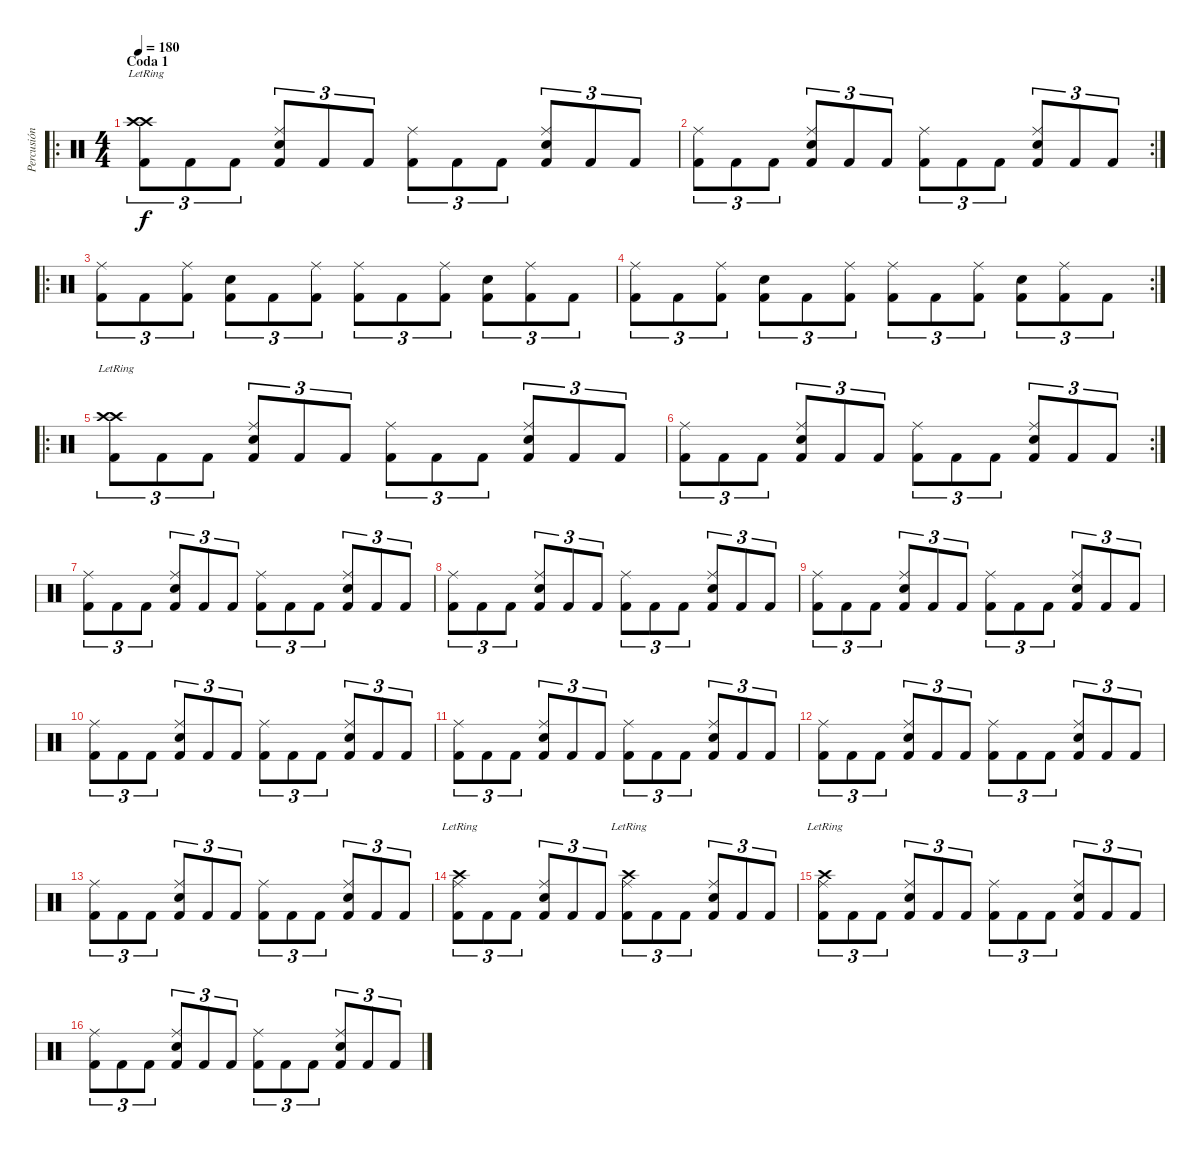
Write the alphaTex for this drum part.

\track ("Percusión" "Percusión") {instrument percussion}
\staff {score}
\articulation defaults
\ro
\ts (4 4)
\section ("" "Coda 1")
\tempo 180
\clef neutral
\ks c
("Crash high (hit)"{lr} "Crash high (hit)"{lr} "Kick (hit) 2").8{tu (3 2) dy f} "Kick (hit) 2".8{tu (3 2)} "Kick (hit) 2".8{tu (3 2)} ("Ride (middle)" "Snare (hit) 2" "Kick (hit) 2").8{tu (3 2)} "Kick (hit) 2".8{tu (3 2)} "Kick (hit) 2".8{tu (3 2)} ("Ride (middle)" "Kick (hit) 2").8{tu (3 2)} "Kick (hit) 2".8{tu (3 2)} "Kick (hit) 2".8{tu (3 2)} ("Ride (middle)" "Snare (hit) 2" "Kick (hit) 2").8{tu (3 2)} "Kick (hit) 2".8{tu (3 2)} "Kick (hit) 2".8{tu (3 2)} |
\rc 2
("Ride (middle)" "Kick (hit) 2").8{tu (3 2)} "Kick (hit) 2".8{tu (3 2)} "Kick (hit) 2".8{tu (3 2)} ("Ride (middle)" "Snare (hit) 2" "Kick (hit) 2").8{tu (3 2)} "Kick (hit) 2".8{tu (3 2)} "Kick (hit) 2".8{tu (3 2)} ("Ride (middle)" "Kick (hit) 2").8{tu (3 2)} "Kick (hit) 2".8{tu (3 2)} "Kick (hit) 2".8{tu (3 2)} ("Ride (middle)" "Snare (hit) 2" "Kick (hit) 2").8{tu (3 2)} "Kick (hit) 2".8{tu (3 2)} "Kick (hit) 2".8{tu (3 2)} |
\ro
("Ride (middle)" "Kick (hit) 2").8{tu (3 2)} "Kick (hit) 2".8{tu (3 2)} ("Ride (middle)" "Kick (hit) 2").8{tu (3 2)} ("Snare (hit) 2" "Kick (hit) 2").8{tu (3 2)} "Kick (hit) 2".8{tu (3 2)} ("Ride (middle)" "Kick (hit) 2").8{tu (3 2)} ("Ride (middle)" "Kick (hit) 2").8{tu (3 2)} "Kick (hit) 2".8{tu (3 2)} ("Ride (middle)" "Kick (hit) 2").8{tu (3 2)} ("Snare (hit) 2" "Kick (hit) 2").8{tu (3 2)} ("Ride (middle)" "Kick (hit) 2").8{tu (3 2)} "Kick (hit) 2".8{tu (3 2)} |
\rc 2
("Ride (middle)" "Kick (hit) 2").8{tu (3 2)} "Kick (hit) 2".8{tu (3 2)} ("Ride (middle)" "Kick (hit) 2").8{tu (3 2)} ("Snare (hit) 2" "Kick (hit) 2").8{tu (3 2)} "Kick (hit) 2".8{tu (3 2)} ("Ride (middle)" "Kick (hit) 2").8{tu (3 2)} ("Ride (middle)" "Kick (hit) 2").8{tu (3 2)} "Kick (hit) 2".8{tu (3 2)} ("Ride (middle)" "Kick (hit) 2").8{tu (3 2)} ("Snare (hit) 2" "Kick (hit) 2").8{tu (3 2)} ("Ride (middle)" "Kick (hit) 2").8{tu (3 2)} "Kick (hit) 2".8{tu (3 2)} |
\ro
("Crash high (hit)"{lr} "Crash high (hit)"{lr} "Kick (hit) 2").8{tu (3 2)} "Kick (hit) 2".8{tu (3 2)} "Kick (hit) 2".8{tu (3 2)} ("Ride (middle)" "Snare (hit) 2" "Kick (hit) 2").8{tu (3 2)} "Kick (hit) 2".8{tu (3 2)} "Kick (hit) 2".8{tu (3 2)} ("Ride (middle)" "Kick (hit) 2").8{tu (3 2)} "Kick (hit) 2".8{tu (3 2)} "Kick (hit) 2".8{tu (3 2)} ("Ride (middle)" "Snare (hit) 2" "Kick (hit) 2").8{tu (3 2)} "Kick (hit) 2".8{tu (3 2)} "Kick (hit) 2".8{tu (3 2)} |
\rc 2
("Ride (middle)" "Kick (hit) 2").8{tu (3 2)} "Kick (hit) 2".8{tu (3 2)} "Kick (hit) 2".8{tu (3 2)} ("Ride (middle)" "Snare (hit) 2" "Kick (hit) 2").8{tu (3 2)} "Kick (hit) 2".8{tu (3 2)} "Kick (hit) 2".8{tu (3 2)} ("Ride (middle)" "Kick (hit) 2").8{tu (3 2)} "Kick (hit) 2".8{tu (3 2)} "Kick (hit) 2".8{tu (3 2)} ("Ride (middle)" "Snare (hit) 2" "Kick (hit) 2").8{tu (3 2)} "Kick (hit) 2".8{tu (3 2)} "Kick (hit) 2".8{tu (3 2)} |
("Ride (middle)" "Kick (hit) 2").8{tu (3 2)} "Kick (hit) 2".8{tu (3 2)} "Kick (hit) 2".8{tu (3 2)} ("Ride (middle)" "Snare (hit) 2" "Kick (hit) 2").8{tu (3 2)} "Kick (hit) 2".8{tu (3 2)} "Kick (hit) 2".8{tu (3 2)} ("Ride (middle)" "Kick (hit) 2").8{tu (3 2)} "Kick (hit) 2".8{tu (3 2)} "Kick (hit) 2".8{tu (3 2)} ("Ride (middle)" "Snare (hit) 2" "Kick (hit) 2").8{tu (3 2)} "Kick (hit) 2".8{tu (3 2)} "Kick (hit) 2".8{tu (3 2)} |
("Ride (middle)" "Kick (hit) 2").8{tu (3 2)} "Kick (hit) 2".8{tu (3 2)} "Kick (hit) 2".8{tu (3 2)} ("Ride (middle)" "Snare (hit) 2" "Kick (hit) 2").8{tu (3 2)} "Kick (hit) 2".8{tu (3 2)} "Kick (hit) 2".8{tu (3 2)} ("Ride (middle)" "Kick (hit) 2").8{tu (3 2)} "Kick (hit) 2".8{tu (3 2)} "Kick (hit) 2".8{tu (3 2)} ("Ride (middle)" "Snare (hit) 2" "Kick (hit) 2").8{tu (3 2)} "Kick (hit) 2".8{tu (3 2)} "Kick (hit) 2".8{tu (3 2)} |
("Ride (middle)" "Kick (hit) 2").8{tu (3 2)} "Kick (hit) 2".8{tu (3 2)} "Kick (hit) 2".8{tu (3 2)} ("Ride (middle)" "Snare (hit) 2" "Kick (hit) 2").8{tu (3 2)} "Kick (hit) 2".8{tu (3 2)} "Kick (hit) 2".8{tu (3 2)} ("Ride (middle)" "Kick (hit) 2").8{tu (3 2)} "Kick (hit) 2".8{tu (3 2)} "Kick (hit) 2".8{tu (3 2)} ("Ride (middle)" "Snare (hit) 2" "Kick (hit) 2").8{tu (3 2)} "Kick (hit) 2".8{tu (3 2)} "Kick (hit) 2".8{tu (3 2)} |
("Ride (middle)" "Kick (hit) 2").8{tu (3 2)} "Kick (hit) 2".8{tu (3 2)} "Kick (hit) 2".8{tu (3 2)} ("Ride (middle)" "Snare (hit) 2" "Kick (hit) 2").8{tu (3 2)} "Kick (hit) 2".8{tu (3 2)} "Kick (hit) 2".8{tu (3 2)} ("Ride (middle)" "Kick (hit) 2").8{tu (3 2)} "Kick (hit) 2".8{tu (3 2)} "Kick (hit) 2".8{tu (3 2)} ("Ride (middle)" "Snare (hit) 2" "Kick (hit) 2").8{tu (3 2)} "Kick (hit) 2".8{tu (3 2)} "Kick (hit) 2".8{tu (3 2)} |
("Ride (middle)" "Kick (hit) 2").8{tu (3 2)} "Kick (hit) 2".8{tu (3 2)} "Kick (hit) 2".8{tu (3 2)} ("Ride (middle)" "Snare (hit) 2" "Kick (hit) 2").8{tu (3 2)} "Kick (hit) 2".8{tu (3 2)} "Kick (hit) 2".8{tu (3 2)} ("Ride (middle)" "Kick (hit) 2").8{tu (3 2)} "Kick (hit) 2".8{tu (3 2)} "Kick (hit) 2".8{tu (3 2)} ("Ride (middle)" "Snare (hit) 2" "Kick (hit) 2").8{tu (3 2)} "Kick (hit) 2".8{tu (3 2)} "Kick (hit) 2".8{tu (3 2)} |
("Ride (middle)" "Kick (hit) 2").8{tu (3 2)} "Kick (hit) 2".8{tu (3 2)} "Kick (hit) 2".8{tu (3 2)} ("Ride (middle)" "Snare (hit) 2" "Kick (hit) 2").8{tu (3 2)} "Kick (hit) 2".8{tu (3 2)} "Kick (hit) 2".8{tu (3 2)} ("Ride (middle)" "Kick (hit) 2").8{tu (3 2)} "Kick (hit) 2".8{tu (3 2)} "Kick (hit) 2".8{tu (3 2)} ("Ride (middle)" "Snare (hit) 2" "Kick (hit) 2").8{tu (3 2)} "Kick (hit) 2".8{tu (3 2)} "Kick (hit) 2".8{tu (3 2)} |
("Ride (middle)" "Kick (hit) 2").8{tu (3 2)} "Kick (hit) 2".8{tu (3 2)} "Kick (hit) 2".8{tu (3 2)} ("Ride (middle)" "Snare (hit) 2" "Kick (hit) 2").8{tu (3 2)} "Kick (hit) 2".8{tu (3 2)} "Kick (hit) 2".8{tu (3 2)} ("Ride (middle)" "Kick (hit) 2").8{tu (3 2)} "Kick (hit) 2".8{tu (3 2)} "Kick (hit) 2".8{tu (3 2)} ("Ride (middle)" "Snare (hit) 2" "Kick (hit) 2").8{tu (3 2)} "Kick (hit) 2".8{tu (3 2)} "Kick (hit) 2".8{tu (3 2)} |
("Crash high (hit)"{lr} "Ride (middle)" "Kick (hit) 2").8{tu (3 2)} "Kick (hit) 2".8{tu (3 2)} "Kick (hit) 2".8{tu (3 2)} ("Ride (middle)" "Snare (hit) 2" "Kick (hit) 2").8{tu (3 2)} "Kick (hit) 2".8{tu (3 2)} "Kick (hit) 2".8{tu (3 2)} ("Crash high (hit)"{lr} "Ride (middle)" "Kick (hit) 2").8{tu (3 2)} "Kick (hit) 2".8{tu (3 2)} "Kick (hit) 2".8{tu (3 2)} ("Ride (middle)" "Snare (hit) 2" "Kick (hit) 2").8{tu (3 2)} "Kick (hit) 2".8{tu (3 2)} "Kick (hit) 2".8{tu (3 2)} |
("Crash high (hit)"{lr} "Ride (middle)" "Kick (hit) 2").8{tu (3 2)} "Kick (hit) 2".8{tu (3 2)} "Kick (hit) 2".8{tu (3 2)} ("Ride (middle)" "Snare (hit) 2" "Kick (hit) 2").8{tu (3 2)} "Kick (hit) 2".8{tu (3 2)} "Kick (hit) 2".8{tu (3 2)} ("Ride (middle)" "Kick (hit) 2").8{tu (3 2)} "Kick (hit) 2".8{tu (3 2)} "Kick (hit) 2".8{tu (3 2)} ("Ride (middle)" "Snare (hit) 2" "Kick (hit) 2").8{tu (3 2)} "Kick (hit) 2".8{tu (3 2)} "Kick (hit) 2".8{tu (3 2)} |
("Ride (middle)" "Kick (hit) 2").8{tu (3 2)} "Kick (hit) 2".8{tu (3 2)} "Kick (hit) 2".8{tu (3 2)} ("Ride (middle)" "Snare (hit) 2" "Kick (hit) 2").8{tu (3 2)} "Kick (hit) 2".8{tu (3 2)} "Kick (hit) 2".8{tu (3 2)} ("Ride (middle)" "Kick (hit) 2").8{tu (3 2)} "Kick (hit) 2".8{tu (3 2)} "Kick (hit) 2".8{tu (3 2)} ("Ride (middle)" "Snare (hit) 2" "Kick (hit) 2").8{tu (3 2)} "Kick (hit) 2".8{tu (3 2)} "Kick (hit) 2".8{tu (3 2)}
